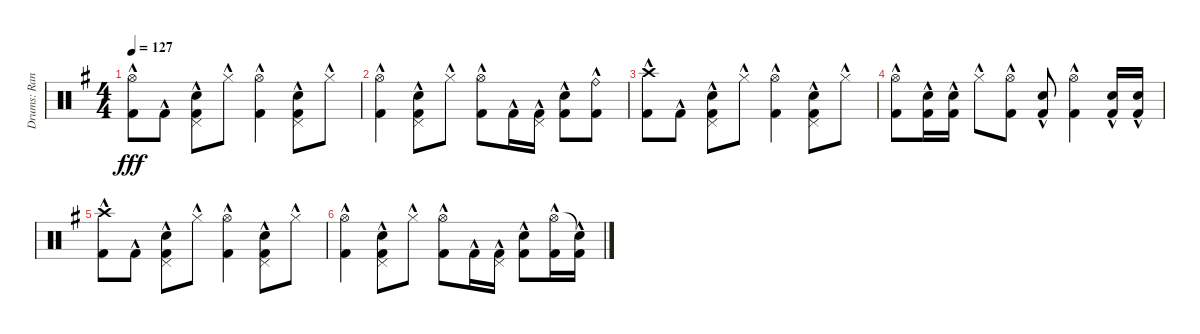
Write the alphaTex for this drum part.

\track ("Drums: Randy" "Drums: Ran") {instrument percussion}
\staff {score}
\articulation defaults
\ts (4 4)
\tempo 127
\clef neutral
\ks g
("Hi-Hat (open)" "Kick (hit) 2"{hac}).8{dy fff} "Kick (hit) 2"{hac}.8 ("Pedal Hi-Hat (hit)"{hac} "Snare (hit) 2"{hac} "Kick (hit) 2"{hac}).8 "Hi-Hat (closed)"{hac}.8 ("Hi-Hat (open)"{hac} "Kick (hit) 2"{hac}).4 ("Pedal Hi-Hat (hit)"{hac} "Snare (hit) 2"{hac} "Kick (hit) 2"{hac}).8 "Hi-Hat (closed)"{hac}.8 |
("Hi-Hat (open)"{hac} "Kick (hit) 2"{hac}).4 ("Pedal Hi-Hat (hit)"{hac} "Snare (hit) 2"{hac} "Kick (hit) 2"{hac}).8 "Hi-Hat (closed)"{hac}.8 ("Hi-Hat (open)"{hac} "Kick (hit) 2"{hac}).8 "Kick (hit) 2"{hac}.16 ("Pedal Hi-Hat (hit)" "Kick (hit) 2"{hac}).16 ("Snare (hit) 2"{hac} "Kick (hit) 2"{hac}).8 ("Ride (bell)"{hac} "Kick (hit) 2"{hac}).8 |
("Crash high (hit)"{hac} "Kick (hit) 2"{hac}).8 "Kick (hit) 2"{hac}.8 ("Pedal Hi-Hat (hit)"{hac} "Snare (hit) 2"{hac} "Kick (hit) 2"{hac}).8 "Hi-Hat (closed)"{hac}.8 ("Hi-Hat (open)"{hac} "Kick (hit) 2"{hac}).4 ("Pedal Hi-Hat (hit)"{hac} "Snare (hit) 2"{hac} "Kick (hit) 2"{hac}).8 "Hi-Hat (closed)"{hac}.8 |
("Hi-Hat (open)"{hac} "Kick (hit) 2"{hac}).8 ("Snare (hit) 2"{hac} "Kick (hit) 2"{hac}).16 ("Snare (hit) 2"{hac} "Kick (hit) 2"{hac}).16 "Hi-Hat (closed)"{hac}.8 ("Hi-Hat (open)"{hac} "Kick (hit) 2"{hac}).8 ("Snare (hit) 2"{hac} "Kick (hit) 2"{hac}).8 ("Hi-Hat (open)"{hac} "Kick (hit) 2"{hac}).4 ("Snare (hit) 2"{hac} "Kick (hit) 2"{hac}).16 ("Snare (hit) 2"{hac} "Kick (hit) 2"{hac}).16 |
("Crash high (hit)"{hac} "Kick (hit) 2"{hac}).8 "Kick (hit) 2"{hac}.8 ("Pedal Hi-Hat (hit)"{hac} "Snare (hit) 2"{hac} "Kick (hit) 2"{hac}).8 "Hi-Hat (closed)"{hac}.8 ("Hi-Hat (open)"{hac} "Kick (hit) 2"{hac}).4 ("Pedal Hi-Hat (hit)"{hac} "Snare (hit) 2"{hac} "Kick (hit) 2"{hac}).8 "Hi-Hat (closed)"{hac}.8 |
("Hi-Hat (open)"{hac} "Kick (hit) 2"{hac}).4 ("Pedal Hi-Hat (hit)"{hac} "Snare (hit) 2"{hac} "Kick (hit) 2"{hac}).8 "Hi-Hat (closed)"{hac}.8 ("Hi-Hat (open)"{hac} "Kick (hit) 2"{hac}).8 "Kick (hit) 2"{hac}.16 ("Pedal Hi-Hat (hit)" "Kick (hit) 2"{hac}).16 ("Snare (hit) 2"{hac} "Kick (hit) 2"{hac}).8 ("Hi-Hat (open)" "Kick (hit) 2"{hac}).16 ("Snare (hit)"{t} "Kick (hit) 2"{hac}).16
